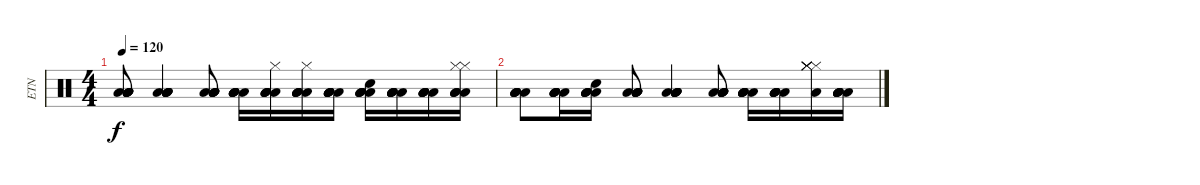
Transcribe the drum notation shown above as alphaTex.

\track ("ETN" "ETN") {instrument percussion}
\staff {score}
\articulation defaults
\ts (4 4)
\tempo 120
\clef neutral
\ks c
("Low Floor Tom (hit)" "Low Floor Tom (hit)" "Low Floor Tom (hit)" "Low Floor Tom (hit)" "Low Floor Tom (hit)" "Low Floor Tom (hit)").8{dy f} ("Low Tom (hit)" "Low Tom (hit)" "Low Tom (hit)" "Low Tom (hit)" "Low Tom (hit)" "Low Tom (hit)").4 ("Low Floor Tom (hit)" "Low Floor Tom (hit)" "Low Floor Tom (hit)" "Low Floor Tom (hit)" "Low Floor Tom (hit)" "Low Floor Tom (hit)").8 ("Low Floor Tom (hit)" "Low Floor Tom (hit)" "Low Floor Tom (hit)" "Low Floor Tom (hit)" "Low Floor Tom (hit)" "Low Floor Tom (hit)").16 ("Hi-Hat (closed)" "Low Floor Tom (hit)" "Low Floor Tom (hit)" "Low Floor Tom (hit)" "Low Floor Tom (hit)" "Low Floor Tom (hit)").16 ("Hi-Hat (closed)" "Low Floor Tom (hit)" "Low Floor Tom (hit)" "Low Floor Tom (hit)" "Low Floor Tom (hit)" "Low Floor Tom (hit)").16 ("Low Floor Tom (hit)" "Low Floor Tom (hit)" "Low Floor Tom (hit)" "Low Floor Tom (hit)" "Low Floor Tom (hit)" "Low Floor Tom (hit)").16 ("Low Floor Tom (hit)" "Low Floor Tom (hit)" "Low Floor Tom (hit)" "Low Floor Tom (hit)" "Low Floor Tom (hit)" "Snare (hit)").16 ("Low Tom (hit)" "Low Tom (hit)" "Low Tom (hit)" "Low Tom (hit)" "Low Floor Tom (hit)" "Low Floor Tom (hit)").16 ("Low Floor Tom (hit)" "Low Floor Tom (hit)" "Low Floor Tom (hit)" "Low Floor Tom (hit)" "Low Floor Tom (hit)" "Low Floor Tom (hit)").16 ("Low Floor Tom (hit)" "Low Floor Tom (hit)" "Low Floor Tom (hit)" "Hi-Hat (closed)" "Hi-Hat (closed)" "Low Tom (hit)").16 |
("Low Floor Tom (hit)" "Low Floor Tom (hit)" "Low Floor Tom (hit)" "Low Floor Tom (hit)" "Low Floor Tom (hit)" "Low Floor Tom (hit)").8 ("Low Floor Tom (hit)" "Low Floor Tom (hit)" "Low Floor Tom (hit)" "Low Floor Tom (hit)" "Low Floor Tom (hit)" "Low Floor Tom (hit)").16 ("Low Floor Tom (hit)" "Low Floor Tom (hit)" "Low Floor Tom (hit)" "Snare (hit)" "Low Floor Tom (hit)" "Low Floor Tom (hit)").16 ("Low Floor Tom (hit)" "Low Floor Tom (hit)" "Low Floor Tom (hit)" "Low Floor Tom (hit)" "Low Floor Tom (hit)" "Low Floor Tom (hit)").8 ("Low Tom (hit)" "Low Tom (hit)" "Low Tom (hit)" "Low Tom (hit)" "Low Tom (hit)" "Low Tom (hit)").4 ("Low Floor Tom (hit)" "Low Floor Tom (hit)" "Low Floor Tom (hit)" "Low Floor Tom (hit)" "Low Floor Tom (hit)" "Low Floor Tom (hit)").8 ("Low Floor Tom (hit)" "Low Floor Tom (hit)" "Low Floor Tom (hit)" "Low Floor Tom (hit)" "Low Floor Tom (hit)" "Low Floor Tom (hit)").16 ("Low Floor Tom (hit)" "Low Floor Tom (hit)" "Low Floor Tom (hit)" "Low Floor Tom (hit)" "Low Floor Tom (hit)" "Low Floor Tom (hit)").16 ("Hi-Hat (closed)" "Hi-Hat (closed)" "Hi-Hat (closed)" "Hi-Hat (closed)" "Hi-Hat (closed)" "Low Tom (hit)").16 ("Low Floor Tom (hit)" "Low Floor Tom (hit)" "Low Floor Tom (hit)" "Low Floor Tom (hit)" "Low Floor Tom (hit)" "Low Floor Tom (hit)").16
